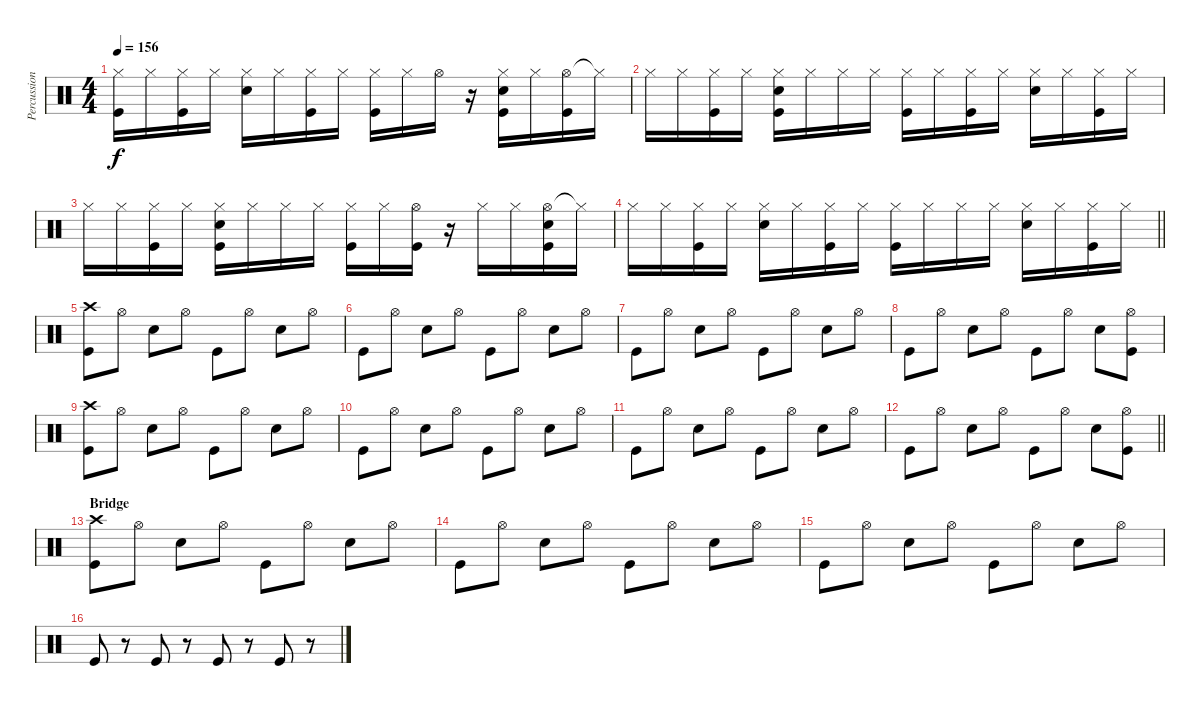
\track ("Percussion" "Percussion") {instrument percussion}
\staff {score}
\articulation defaults
\ts (4 4)
\tempo 156
\clef neutral
\ks c
("Hi-Hat (closed)" "Kick (hit)").16{dy f} "Hi-Hat (closed)".16 ("Hi-Hat (closed)" "Kick (hit)").16 "Hi-Hat (closed)".16 ("Hi-Hat (closed)" "Snare (hit) 2").16 "Hi-Hat (closed)".16 ("Hi-Hat (closed)" "Kick (hit)").16 "Hi-Hat (closed)".16 ("Hi-Hat (closed)" "Kick (hit)").16 "Hi-Hat (closed)".16 "Hi-Hat (open)".16 r.16 ("Hi-Hat (closed)" "Snare (hit) 2" "Kick (hit)").16 "Hi-Hat (closed)".16 ("Hi-Hat (open)" "Kick (hit)").16 "Hi-Hat (closed)"{t}.16 |
"Hi-Hat (closed)".16 "Hi-Hat (closed)".16 ("Hi-Hat (closed)" "Kick (hit)").16 "Hi-Hat (closed)".16 ("Hi-Hat (closed)" "Snare (hit) 2" "Kick (hit)").16 "Hi-Hat (closed)".16 "Hi-Hat (closed)".16 "Hi-Hat (closed)".16 ("Hi-Hat (closed)" "Kick (hit)").16 "Hi-Hat (closed)".16 ("Hi-Hat (closed)" "Kick (hit)").16 "Hi-Hat (closed)".16 ("Hi-Hat (closed)" "Snare (hit) 2").16 "Hi-Hat (closed)".16 ("Hi-Hat (closed)" "Kick (hit)").16 "Hi-Hat (closed)".16 |
"Hi-Hat (closed)".16 "Hi-Hat (closed)".16 ("Hi-Hat (closed)" "Kick (hit)").16 "Hi-Hat (closed)".16 ("Hi-Hat (closed)" "Snare (hit) 2" "Kick (hit)").16 "Hi-Hat (closed)".16 "Hi-Hat (closed)".16 "Hi-Hat (closed)".16 ("Hi-Hat (closed)" "Kick (hit)").16 "Hi-Hat (closed)".16 ("Hi-Hat (open)" "Kick (hit)").16 r.16 "Hi-Hat (closed)".16 "Hi-Hat (closed)".16 ("Hi-Hat (open)" "Snare (hit) 2" "Kick (hit)").16 "Hi-Hat (closed)"{t}.16 |
\barLineRight lightlight "Hi-Hat (closed)".16 "Hi-Hat (closed)".16
("Hi-Hat (closed)" "Kick (hit)").16 "Hi-Hat (closed)".16 ("Hi-Hat (closed)" "Snare (hit) 2").16 "Hi-Hat (closed)".16 ("Hi-Hat (closed)" "Kick (hit)").16 "Hi-Hat (closed)".16 ("Hi-Hat (closed)" "Kick (hit)").16 "Hi-Hat (closed)".16 "Hi-Hat (closed)".16 "Hi-Hat (closed)".16 ("Hi-Hat (closed)" "Snare (hit) 2").16 "Hi-Hat (closed)".16 ("Hi-Hat (closed)" "Kick (hit)").16 "Hi-Hat (closed)".16 |
("Crash high (hit)" "Kick (hit)").8 "Hi-Hat (open)".8 "Snare (hit) 2".8 "Hi-Hat (open)".8 "Kick (hit)".8 "Hi-Hat (open)".8 "Snare (hit) 2".8 "Hi-Hat (open)".8 |
"Kick (hit)".8 "Hi-Hat (open)".8 "Snare (hit) 2".8 "Hi-Hat (open)".8 "Kick (hit)".8 "Hi-Hat (open)".8 "Snare (hit) 2".8 "Hi-Hat (open)".8 |
"Kick (hit)".8 "Hi-Hat (open)".8 "Snare (hit) 2".8 "Hi-Hat (open)".8 "Kick (hit)".8 "Hi-Hat (open)".8 "Snare (hit) 2".8 "Hi-Hat (open)".8 |
"Kick (hit)".8 "Hi-Hat (open)".8 "Snare (hit) 2".8 "Hi-Hat (open)".8 "Kick (hit)".8 "Hi-Hat (open)".8 "Snare (hit) 2".8 ("Hi-Hat (open)" "Kick (hit)").8 |
("Crash high (hit)" "Kick (hit)").8 "Hi-Hat (open)".8 "Snare (hit) 2".8 "Hi-Hat (open)".8 "Kick (hit)".8 "Hi-Hat (open)".8 "Snare (hit) 2".8 "Hi-Hat (open)".8 |
"Kick (hit)".8 "Hi-Hat (open)".8 "Snare (hit) 2".8 "Hi-Hat (open)".8 "Kick (hit)".8 "Hi-Hat (open)".8 "Snare (hit) 2".8 "Hi-Hat (open)".8 |
"Kick (hit)".8 "Hi-Hat (open)".8 "Snare (hit) 2".8 "Hi-Hat (open)".8 "Kick (hit)".8 "Hi-Hat (open)".8 "Snare (hit) 2".8 "Hi-Hat (open)".8 |
\barLineRight lightlight "Kick (hit)".8 "Hi-Hat (open)".8 "Snare (hit) 2".8 "Hi-Hat (open)".8 "Kick (hit)".8 "Hi-Hat (open)".8 "Snare (hit) 2".8
("Hi-Hat (open)" "Kick (hit)").8 |
\section ("" "Bridge")
("Crash high (hit)" "Kick (hit)").8 "Hi-Hat (open)".8 "Snare (hit) 2".8 "Hi-Hat (open)".8 "Kick (hit)".8 "Hi-Hat (open)".8 "Snare (hit) 2".8 "Hi-Hat (open)".8 |
"Kick (hit)".8 "Hi-Hat (open)".8 "Snare (hit) 2".8 "Hi-Hat (open)".8 "Kick (hit)".8 "Hi-Hat (open)".8 "Snare (hit) 2".8 "Hi-Hat (open)".8 |
"Kick (hit)".8 "Hi-Hat (open)".8 "Snare (hit) 2".8 "Hi-Hat (open)".8 "Kick (hit)".8 "Hi-Hat (open)".8 "Snare (hit) 2".8 "Hi-Hat (open)".8 |
"Kick (hit)".8 r.8 "Kick (hit)".8 r.8 "Kick (hit)".8 r.8 "Kick (hit)".8 r.8
